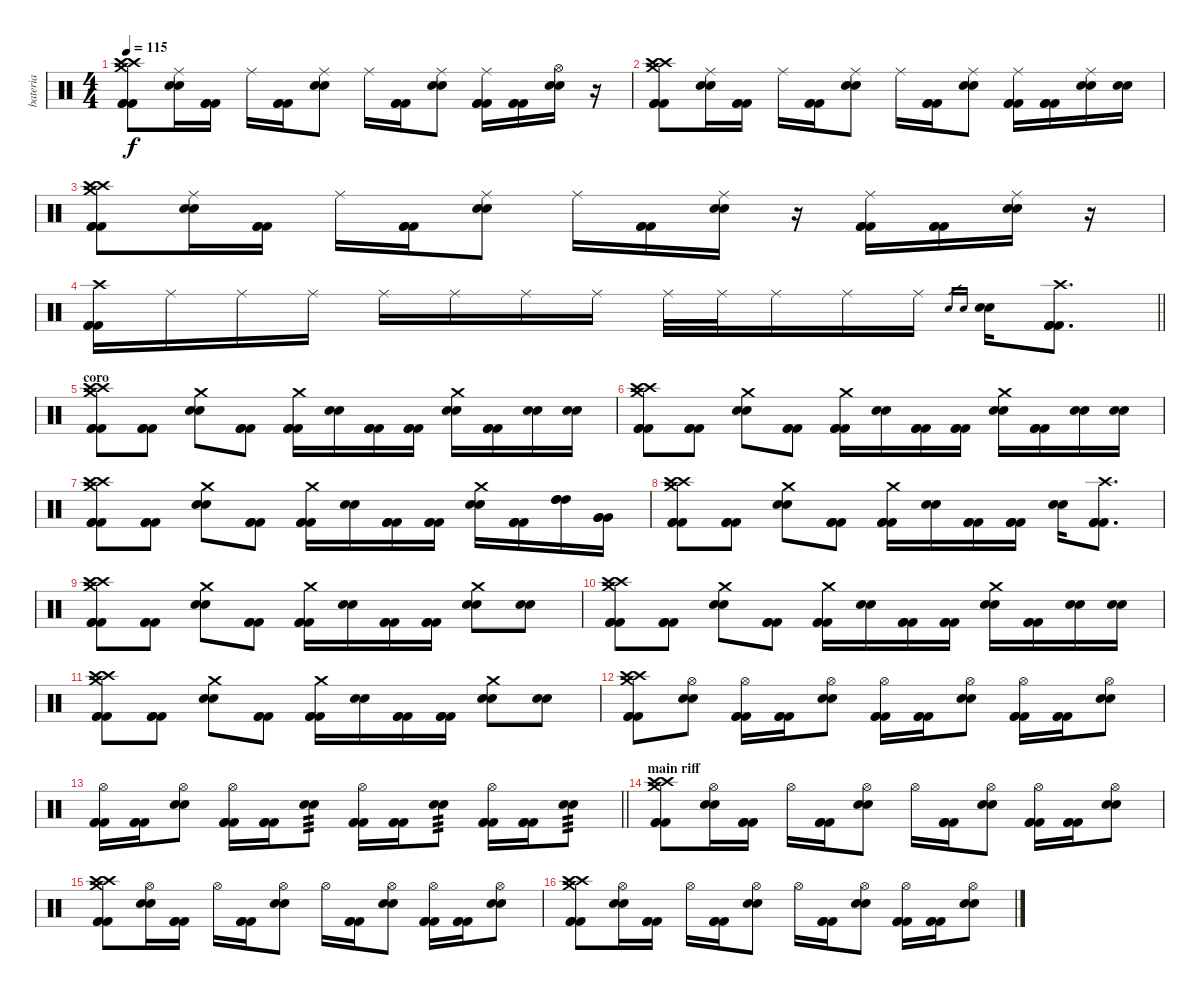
\track ("bateria" "bateria") {instrument percussion}
\staff {score}
\articulation defaults
\ts (4 4)
\tempo 115
\clef neutral
\ks c
("Crash high (hit)" "Crash medium (hit)" "Crash high (hit)" "Kick (hit) 2" "Kick (hit) 2" "Kick (hit) 2").8{dy f} ("Ride (middle)" "Electric Snare (hit)" "Electric Snare (hit)").16 ("Kick (hit) 2" "Kick (hit) 2" "Kick (hit) 2").16 "Ride (middle)".16 ("Kick (hit) 2" "Kick (hit) 2" "Kick (hit) 2").16 ("Ride (middle)" "Electric Snare (hit)" "Electric Snare (hit)").8 "Ride (middle)".16 ("Kick (hit) 2" "Kick (hit) 2" "Kick (hit) 2").16 ("Ride (middle)" "Electric Snare (hit)" "Electric Snare (hit)").8 ("Ride (middle)" "Kick (hit) 2" "Kick (hit) 2" "Kick (hit) 2").16 ("Kick (hit) 2" "Kick (hit) 2" "Kick (hit) 2").16 ("Hi-Hat (open)" "Electric Snare (hit)" "Electric Snare (hit)").16 r.16 |
("Crash high (hit)" "Crash medium (hit)" "Crash high (hit)" "Kick (hit) 2" "Kick (hit) 2" "Kick (hit) 2").8 ("Ride (middle)" "Electric Snare (hit)" "Electric Snare (hit)").16 ("Kick (hit) 2" "Kick (hit) 2" "Kick (hit) 2").16 "Ride (middle)".16 ("Kick (hit) 2" "Kick (hit) 2" "Kick (hit) 2").16 ("Ride (middle)" "Electric Snare (hit)" "Electric Snare (hit)").8 "Ride (middle)".16 ("Kick (hit) 2" "Kick (hit) 2" "Kick (hit) 2").16 ("Ride (middle)" "Electric Snare (hit)" "Electric Snare (hit)").8 ("Ride (middle)" "Kick (hit) 2" "Kick (hit) 2" "Kick (hit) 2").16 ("Kick (hit) 2" "Kick (hit) 2" "Kick (hit) 2").16 ("Ride (middle)" "Electric Snare (hit)" "Electric Snare (hit)").16 ("Electric Snare (hit)" "Electric Snare (hit)").16 |
("Crash high (hit)" "Crash medium (hit)" "Crash high (hit)" "Kick (hit) 2" "Kick (hit) 2" "Kick (hit) 2").8 ("Ride (middle)" "Electric Snare (hit)" "Electric Snare (hit)").16 ("Kick (hit) 2" "Kick (hit) 2" "Kick (hit) 2").16 "Ride (middle)".16 ("Kick (hit) 2" "Kick (hit) 2" "Kick (hit) 2").16 ("Ride (middle)" "Electric Snare (hit)" "Electric Snare (hit)").8 "Ride (middle)".16 ("Kick (hit) 2" "Kick (hit) 2" "Kick (hit) 2").16 ("Ride (middle)" "Electric Snare (hit)" "Electric Snare (hit)").16 r.16 ("Ride (middle)" "Kick (hit) 2" "Kick (hit) 2" "Kick (hit) 2").16 ("Kick (hit) 2" "Kick (hit) 2" "Kick (hit) 2").16 ("Ride (middle)" "Electric Snare (hit)" "Electric Snare (hit)").16 r.16 |
\barLineRight lightlight
("Crash high (hit)" "Kick (hit) 2" "Kick (hit) 2" "Kick (hit) 2").16 "Ride (middle)".16 "Ride (middle)".16 "Ride (middle)".16 "Ride (middle)".16 "Ride (middle)".16 "Ride (middle)".16 "Ride (middle)".16 "Ride (middle)".32 "Ride (middle)".32 "Ride (middle)".16 "Ride (middle)".16 "Ride (middle)".16 "Electric Snare (hit)".16{gr} "Electric Snare (hit)".16{gr} ("Electric Snare (hit)" "Electric Snare (hit)").16 ("Crash high (hit)" "Kick (hit) 2" "Kick (hit) 2" "Kick (hit) 2").8{d} |
\section ("" "coro")
("Crash high (hit)" "Crash medium (hit)" "Crash high (hit)" "Kick (hit) 2" "Kick (hit) 2" "Kick (hit) 2").8 ("Kick (hit) 2" "Kick (hit) 2" "Kick (hit) 2").8 ("Crash medium (hit)" "Electric Snare (hit)" "Electric Snare (hit)").8 ("Kick (hit) 2" "Kick (hit) 2" "Kick (hit) 2").8 ("Crash medium (hit)" "Kick (hit) 2" "Kick (hit) 2" "Kick (hit) 2").16 ("Electric Snare (hit)" "Electric Snare (hit)").16 ("Kick (hit) 2" "Kick (hit) 2" "Kick (hit) 2").16 ("Kick (hit) 2" "Kick (hit) 2" "Kick (hit) 2").16 ("Crash medium (hit)" "Electric Snare (hit)" "Electric Snare (hit)").16 ("Kick (hit) 2" "Kick (hit) 2" "Kick (hit) 2").16 ("Electric Snare (hit)" "Electric Snare (hit)").16 ("Electric Snare (hit)" "Electric Snare (hit)").16 |
("Crash high (hit)" "Crash medium (hit)" "Crash high (hit)" "Kick (hit) 2" "Kick (hit) 2" "Kick (hit) 2").8 ("Kick (hit) 2" "Kick (hit) 2" "Kick (hit) 2").8 ("Crash medium (hit)" "Electric Snare (hit)" "Electric Snare (hit)").8 ("Kick (hit) 2" "Kick (hit) 2" "Kick (hit) 2").8 ("Crash medium (hit)" "Kick (hit) 2" "Kick (hit) 2" "Kick (hit) 2").16 ("Electric Snare (hit)" "Electric Snare (hit)").16 ("Kick (hit) 2" "Kick (hit) 2" "Kick (hit) 2").16 ("Kick (hit) 2" "Kick (hit) 2" "Kick (hit) 2").16 ("Crash medium (hit)" "Electric Snare (hit)" "Electric Snare (hit)").16 ("Kick (hit) 2" "Kick (hit) 2" "Kick (hit) 2").16 ("Electric Snare (hit)" "Electric Snare (hit)").16 ("Electric Snare (hit)" "Electric Snare (hit)").16 |
("Crash high (hit)" "Crash medium (hit)" "Crash high (hit)" "Kick (hit) 2" "Kick (hit) 2" "Kick (hit) 2").8 ("Kick (hit) 2" "Kick (hit) 2" "Kick (hit) 2").8 ("Crash medium (hit)" "Electric Snare (hit)" "Electric Snare (hit)").8 ("Kick (hit) 2" "Kick (hit) 2" "Kick (hit) 2").8 ("Crash medium (hit)" "Kick (hit) 2" "Kick (hit) 2" "Kick (hit) 2").16 ("Electric Snare (hit)" "Electric Snare (hit)").16 ("Kick (hit) 2" "Kick (hit) 2" "Kick (hit) 2").16 ("Kick (hit) 2" "Kick (hit) 2" "Kick (hit) 2").16 ("Crash medium (hit)" "Electric Snare (hit)" "Electric Snare (hit)").16 ("Kick (hit) 2" "Kick (hit) 2" "Kick (hit) 2").16 ("High Tom (hit)" "High Tom (hit)" "High Tom (hit)").16 ("Very Low Tom (hit)" "Very Low Tom (hit)" "Very Low Tom (hit)").16 |
("Crash high (hit)" "Crash medium (hit)" "Crash high (hit)" "Kick (hit) 2" "Kick (hit) 2" "Kick (hit) 2").8 ("Kick (hit) 2" "Kick (hit) 2" "Kick (hit) 2").8 ("Crash medium (hit)" "Electric Snare (hit)" "Electric Snare (hit)").8 ("Kick (hit) 2" "Kick (hit) 2" "Kick (hit) 2").8 ("Crash medium (hit)" "Kick (hit) 2" "Kick (hit) 2" "Kick (hit) 2").16 ("Electric Snare (hit)" "Electric Snare (hit)").16 ("Kick (hit) 2" "Kick (hit) 2" "Kick (hit) 2").16 ("Kick (hit) 2" "Kick (hit) 2" "Kick (hit) 2").16 ("Electric Snare (hit)" "Electric Snare (hit)").16 ("Crash high (hit)" "Kick (hit) 2" "Kick (hit) 2" "Kick (hit) 2").8{d} |
("Crash high (hit)" "Crash medium (hit)" "Crash high (hit)" "Kick (hit) 2" "Kick (hit) 2" "Kick (hit) 2").8 ("Kick (hit) 2" "Kick (hit) 2" "Kick (hit) 2").8 ("Crash medium (hit)" "Electric Snare (hit)" "Electric Snare (hit)").8 ("Kick (hit) 2" "Kick (hit) 2" "Kick (hit) 2").8 ("Crash medium (hit)" "Kick (hit) 2" "Kick (hit) 2" "Kick (hit) 2").16 ("Electric Snare (hit)" "Electric Snare (hit)").16 ("Kick (hit) 2" "Kick (hit) 2" "Kick (hit) 2").16 ("Kick (hit) 2" "Kick (hit) 2" "Kick (hit) 2").16 ("Crash medium (hit)" "Electric Snare (hit)" "Electric Snare (hit)").8 ("Electric Snare (hit)" "Electric Snare (hit)").8 |
("Crash high (hit)" "Crash medium (hit)" "Crash high (hit)" "Kick (hit) 2" "Kick (hit) 2" "Kick (hit) 2").8 ("Kick (hit) 2" "Kick (hit) 2" "Kick (hit) 2").8 ("Crash medium (hit)" "Electric Snare (hit)" "Electric Snare (hit)").8 ("Kick (hit) 2" "Kick (hit) 2" "Kick (hit) 2").8 ("Crash medium (hit)" "Kick (hit) 2" "Kick (hit) 2" "Kick (hit) 2").16 ("Electric Snare (hit)" "Electric Snare (hit)").16 ("Kick (hit) 2" "Kick (hit) 2" "Kick (hit) 2").16 ("Kick (hit) 2" "Kick (hit) 2" "Kick (hit) 2").16 ("Crash medium (hit)" "Electric Snare (hit)" "Electric Snare (hit)").16 ("Kick (hit) 2" "Kick (hit) 2" "Kick (hit) 2").16 ("Electric Snare (hit)" "Electric Snare (hit)").16 ("Electric Snare (hit)" "Electric Snare (hit)").16 |
("Crash high (hit)" "Crash medium (hit)" "Crash high (hit)" "Kick (hit) 2" "Kick (hit) 2" "Kick (hit) 2").8 ("Kick (hit) 2" "Kick (hit) 2" "Kick (hit) 2").8 ("Crash medium (hit)" "Electric Snare (hit)" "Electric Snare (hit)").8 ("Kick (hit) 2" "Kick (hit) 2" "Kick (hit) 2").8 ("Crash medium (hit)" "Kick (hit) 2" "Kick (hit) 2" "Kick (hit) 2").16 ("Electric Snare (hit)" "Electric Snare (hit)").16 ("Kick (hit) 2" "Kick (hit) 2" "Kick (hit) 2").16 ("Kick (hit) 2" "Kick (hit) 2" "Kick (hit) 2").16 ("Crash medium (hit)" "Electric Snare (hit)" "Electric Snare (hit)").8 ("Electric Snare (hit)" "Electric Snare (hit)").8 |
("Crash high (hit)" "Crash medium (hit)" "Crash high (hit)" "Kick (hit) 2" "Kick (hit) 2" "Kick (hit) 2").8 ("Hi-Hat (open)" "Electric Snare (hit)" "Electric Snare (hit)").8 ("Hi-Hat (open)" "Kick (hit) 2" "Kick (hit) 2" "Kick (hit) 2").16 ("Kick (hit) 2" "Kick (hit) 2" "Kick (hit) 2").16 ("Hi-Hat (open)" "Electric Snare (hit)" "Electric Snare (hit)").8 ("Hi-Hat (open)" "Kick (hit) 2" "Kick (hit) 2" "Kick (hit) 2").16 ("Kick (hit) 2" "Kick (hit) 2" "Kick (hit) 2").16 ("Hi-Hat (open)" "Electric Snare (hit)" "Electric Snare (hit)").8 ("Hi-Hat (open)" "Kick (hit) 2" "Kick (hit) 2" "Kick (hit) 2").16 ("Kick (hit) 2" "Kick (hit) 2" "Kick (hit) 2").16 ("Hi-Hat (open)" "Electric Snare (hit)" "Electric Snare (hit)").8 |
\barLineRight lightlight
("Hi-Hat (open)" "Kick (hit) 2" "Kick (hit) 2" "Kick (hit) 2").16 ("Kick (hit) 2" "Kick (hit) 2" "Kick (hit) 2").16 ("Hi-Hat (open)" "Electric Snare (hit)" "Electric Snare (hit)").8 ("Hi-Hat (open)" "Kick (hit) 2" "Kick (hit) 2" "Kick (hit) 2").16 ("Kick (hit) 2" "Kick (hit) 2" "Kick (hit) 2").16 ("Electric Snare (hit)" "Electric Snare (hit)").8{tp 3} ("Hi-Hat (open)" "Kick (hit) 2" "Kick (hit) 2" "Kick (hit) 2").16 ("Kick (hit) 2" "Kick (hit) 2" "Kick (hit) 2").16 ("Electric Snare (hit)" "Electric Snare (hit)").8{tp 3} ("Hi-Hat (open)" "Kick (hit) 2" "Kick (hit) 2" "Kick (hit) 2").16 ("Kick (hit) 2" "Kick (hit) 2" "Kick (hit) 2").16 ("Electric Snare (hit)" "Electric Snare (hit)").8{tp 3} |
\section ("" "main riff")
("Crash high (hit)" "Crash medium (hit)" "Crash high (hit)" "Kick (hit) 2" "Kick (hit) 2" "Kick (hit) 2").8 ("Hi-Hat (open)" "Electric Snare (hit)" "Electric Snare (hit)").16 ("Kick (hit) 2" "Kick (hit) 2" "Kick (hit) 2").16 "Hi-Hat (open)".16 ("Kick (hit) 2" "Kick (hit) 2" "Kick (hit) 2").16 ("Hi-Hat (open)" "Electric Snare (hit)" "Electric Snare (hit)").8 "Hi-Hat (open)".16 ("Kick (hit) 2" "Kick (hit) 2" "Kick (hit) 2").16 ("Hi-Hat (open)" "Electric Snare (hit)" "Electric Snare (hit)").8 ("Hi-Hat (open)" "Kick (hit) 2" "Kick (hit) 2" "Kick (hit) 2").16 ("Kick (hit) 2" "Kick (hit) 2" "Kick (hit) 2").16 ("Hi-Hat (open)" "Electric Snare (hit)" "Electric Snare (hit)").8 |
("Crash high (hit)" "Crash medium (hit)" "Crash high (hit)" "Kick (hit) 2" "Kick (hit) 2" "Kick (hit) 2").8 ("Hi-Hat (open)" "Electric Snare (hit)" "Electric Snare (hit)").16 ("Kick (hit) 2" "Kick (hit) 2" "Kick (hit) 2").16 "Hi-Hat (open)".16 ("Kick (hit) 2" "Kick (hit) 2" "Kick (hit) 2").16 ("Hi-Hat (open)" "Electric Snare (hit)" "Electric Snare (hit)").8 "Hi-Hat (open)".16 ("Kick (hit) 2" "Kick (hit) 2" "Kick (hit) 2").16 ("Hi-Hat (open)" "Electric Snare (hit)" "Electric Snare (hit)").8 ("Hi-Hat (open)" "Kick (hit) 2" "Kick (hit) 2" "Kick (hit) 2").16 ("Kick (hit) 2" "Kick (hit) 2" "Kick (hit) 2").16 ("Hi-Hat (open)" "Electric Snare (hit)" "Electric Snare (hit)").8 |
("Crash high (hit)" "Crash medium (hit)" "Crash high (hit)" "Kick (hit) 2" "Kick (hit) 2" "Kick (hit) 2").8 ("Hi-Hat (open)" "Electric Snare (hit)" "Electric Snare (hit)").16 ("Kick (hit) 2" "Kick (hit) 2" "Kick (hit) 2").16 "Hi-Hat (open)".16 ("Kick (hit) 2" "Kick (hit) 2" "Kick (hit) 2").16 ("Hi-Hat (open)" "Electric Snare (hit)" "Electric Snare (hit)").8 "Hi-Hat (open)".16 ("Kick (hit) 2" "Kick (hit) 2" "Kick (hit) 2").16 ("Hi-Hat (open)" "Electric Snare (hit)" "Electric Snare (hit)").8 ("Hi-Hat (open)" "Kick (hit) 2" "Kick (hit) 2" "Kick (hit) 2").16 ("Kick (hit) 2" "Kick (hit) 2" "Kick (hit) 2").16 ("Hi-Hat (open)" "Electric Snare (hit)" "Electric Snare (hit)").8
